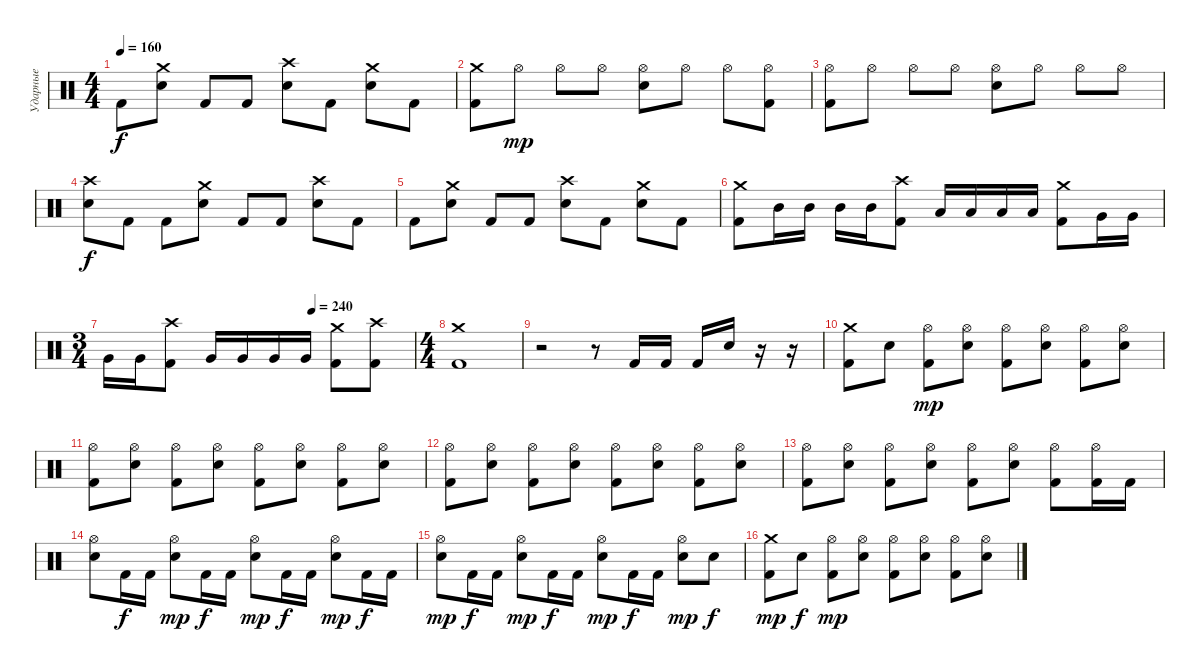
\track ("Ударные" "Ударные") {instrument percussion}
\staff {score}
\articulation defaults
\ts (4 4)
\tempo 160
\clef neutral
\ks c "Kick (hit) 2".8{dy f}
("Crash medium (hit)" "Snare (hit) 2").8 "Kick (hit) 2".8 "Kick (hit) 2".8 ("Crash high (hit)" "Snare (hit) 2").8 "Kick (hit) 2".8 ("Crash medium (hit)" "Snare (hit) 2").8 "Kick (hit) 2".8 |
("Crash medium (hit)" "Kick (hit) 2").8 "Hi-Hat (open)".8{dy mp} "Hi-Hat (open)".8 "Hi-Hat (open)".8 ("Hi-Hat (open)" "Snare (hit) 2").8 "Hi-Hat (open)".8 "Hi-Hat (open)".8 ("Hi-Hat (open)" "Kick (hit) 2").8 |
("Hi-Hat (open)" "Kick (hit) 2").8 "Hi-Hat (open)".8 "Hi-Hat (open)".8 "Hi-Hat (open)".8 ("Hi-Hat (open)" "Snare (hit) 2").8 "Hi-Hat (open)".8 "Hi-Hat (open)".8 "Hi-Hat (open)".8 |
("Crash high (hit)" "Snare (hit) 2").8{dy f} "Kick (hit) 2".8 "Kick (hit) 2".8 ("Crash medium (hit)" "Snare (hit) 2").8 "Kick (hit) 2".8 "Kick (hit) 2".8 ("Crash high (hit)" "Snare (hit) 2").8 "Kick (hit) 2".8 |
"Kick (hit) 2".8 ("Crash medium (hit)" "Snare (hit) 2").8 "Kick (hit) 2".8 "Kick (hit) 2".8 ("Crash high (hit)" "Snare (hit) 2").8 "Kick (hit) 2".8 ("Crash medium (hit)" "Snare (hit) 2").8 "Kick (hit) 2".8 |
("Crash medium (hit)" "Kick (hit) 2").8 "Mid Tom (hit)".16 "Mid Tom (hit)".16 "Mid Tom (hit)".16 "Mid Tom (hit)".16 ("Crash high (hit)" "Kick (hit) 2").8 "Low Tom (hit)".16 "Low Tom (hit)".16 "Low Tom (hit)".16 "Low Tom (hit)".16 ("Crash medium (hit)" "Kick (hit) 2").8 "Very Low Tom (hit)".16 "Very Low Tom (hit)".16 |
\ts (3 4)
\tempo (233 0.6666666666666666)
\tempo (240 0.6666666666666666)
"Very Low Tom (hit)".16 "Very Low Tom (hit)".16 ("Crash high (hit)" "Kick (hit) 2").8 "Very Low Tom (hit)".16 "Very Low Tom (hit)".16 "Very Low Tom (hit)".16 "Very Low Tom (hit)".16 ("Crash medium (hit)" "Kick (hit) 2").8 ("Crash high (hit)" "Kick (hit) 2").8 |
\ts (4 4)
("Crash medium (hit)" "Kick (hit) 2").1 |
r.2 r.8 "Kick (hit) 2".16 "Kick (hit) 2".16 "Kick (hit) 2".16 "Snare (hit) 2".16 r.16 r.16 |
("Crash medium (hit)" "Kick (hit) 2").8 "Snare (hit) 2".8 ("Hi-Hat (open)" "Kick (hit) 2").8{dy mp} ("Hi-Hat (open)" "Snare (hit) 2").8 ("Hi-Hat (open)" "Kick (hit) 2").8 ("Hi-Hat (open)" "Snare (hit) 2").8 ("Hi-Hat (open)" "Kick (hit) 2").8 ("Hi-Hat (open)" "Snare (hit) 2").8 |
("Hi-Hat (open)" "Kick (hit) 2").8 ("Hi-Hat (open)" "Snare (hit) 2").8 ("Hi-Hat (open)" "Kick (hit) 2").8 ("Hi-Hat (open)" "Snare (hit) 2").8 ("Hi-Hat (open)" "Kick (hit) 2").8 ("Hi-Hat (open)" "Snare (hit) 2").8 ("Hi-Hat (open)" "Kick (hit) 2").8 ("Hi-Hat (open)" "Snare (hit) 2").8 |
("Hi-Hat (open)" "Kick (hit) 2").8 ("Hi-Hat (open)" "Snare (hit) 2").8 ("Hi-Hat (open)" "Kick (hit) 2").8 ("Hi-Hat (open)" "Snare (hit) 2").8 ("Hi-Hat (open)" "Kick (hit) 2").8 ("Hi-Hat (open)" "Snare (hit) 2").8 ("Hi-Hat (open)" "Kick (hit) 2").8 ("Hi-Hat (open)" "Snare (hit) 2").8 |
("Hi-Hat (open)" "Kick (hit) 2").8 ("Hi-Hat (open)" "Snare (hit) 2").8 ("Hi-Hat (open)" "Kick (hit) 2").8 ("Hi-Hat (open)" "Snare (hit) 2").8 ("Hi-Hat (open)" "Kick (hit) 2").8 ("Hi-Hat (open)" "Snare (hit) 2").8 ("Hi-Hat (open)" "Kick (hit) 2").8 ("Hi-Hat (open)" "Kick (hit) 2").16 "Kick (hit) 2".16 |
("Hi-Hat (open)" "Snare (hit) 2").8 "Kick (hit) 2".16{dy f} "Kick (hit) 2".16 ("Hi-Hat (open)" "Snare (hit) 2").8{dy mp} "Kick (hit) 2".16{dy f} "Kick (hit) 2".16 ("Hi-Hat (open)" "Snare (hit) 2").8{dy mp} "Kick (hit) 2".16{dy f} "Kick (hit) 2".16 ("Hi-Hat (open)" "Snare (hit) 2").8{dy mp} "Kick (hit) 2".16{dy f} "Kick (hit) 2".16 |
("Hi-Hat (open)" "Snare (hit) 2").8{dy mp} "Kick (hit) 2".16{dy f} "Kick (hit) 2".16 ("Hi-Hat (open)" "Snare (hit) 2").8{dy mp} "Kick (hit) 2".16{dy f} "Kick (hit) 2".16 ("Hi-Hat (open)" "Snare (hit) 2").8{dy mp} "Kick (hit) 2".16{dy f} "Kick (hit) 2".16 ("Hi-Hat (open)" "Snare (hit) 2").8{dy mp} "Snare (hit) 2".8{dy f} |
("Crash medium (hit)" "Kick (hit) 2").8{dy mp} "Snare (hit) 2".8{dy f} ("Hi-Hat (open)" "Kick (hit) 2").8{dy mp} ("Hi-Hat (open)" "Snare (hit) 2").8 ("Hi-Hat (open)" "Kick (hit) 2").8 ("Hi-Hat (open)" "Snare (hit) 2").8 ("Hi-Hat (open)" "Kick (hit) 2").8 ("Hi-Hat (open)" "Snare (hit) 2").8
